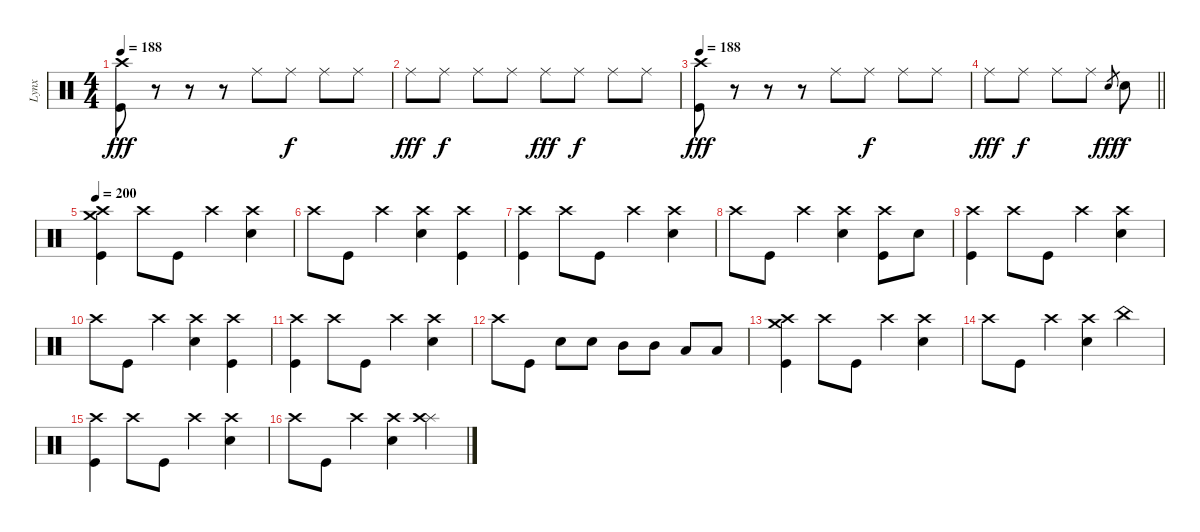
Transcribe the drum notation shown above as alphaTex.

\track ("Lynx" "Lynx") {instrument percussion}
\staff {score}
\articulation defaults
\ts (4 4)
\tempo 188
\clef neutral
\ks c
("Kick (hit)" "Crash high (hit)").8{dy fff} r.8 r.8 r.8 "Ride (middle)".8 "Ride (middle)".8{dy f} "Ride (middle)".8 "Ride (middle)".8 |
"Ride (middle)".8{dy fff} "Ride (middle)".8{dy f} "Ride (middle)".8 "Ride (middle)".8 "Ride (middle)".8{dy fff} "Ride (middle)".8{dy f} "Ride (middle)".8 "Ride (middle)".8 |
\tempo 188
("Kick (hit)" "Crash high (hit)").8{dy fff} r.8 r.8 r.8 "Ride (middle)".8 "Ride (middle)".8{dy f} "Ride (middle)".8 "Ride (middle)".8 |
\barLineRight lightlight "Ride (middle)".8{dy fff} "Ride (middle)".8{dy f} "Ride (middle)".8 "Ride (middle)".8 "Electric Snare (hit)".8{gr dy fff} "Electric Snare (hit)".8{dy f}
|
\section ("" "")
\tempo 200
("Crash high (hit)" "Crash medium (hit)" "Kick (hit)").4 "Crash high (hit)".8 "Kick (hit)".8 "Crash high (hit)".4 ("Crash high (hit)" "Electric Snare (hit)").4 |
"Crash high (hit)".8 "Kick (hit)".8 "Crash high (hit)".4 ("Crash high (hit)" "Electric Snare (hit)").4 ("Crash high (hit)" "Kick (hit)").4 |
("Crash high (hit)" "Kick (hit)").4 "Crash high (hit)".8 "Kick (hit)".8 "Crash high (hit)".4 ("Crash high (hit)" "Electric Snare (hit)").4 |
"Crash high (hit)".8 "Kick (hit)".8 "Crash high (hit)".4 ("Crash high (hit)" "Electric Snare (hit)").4 ("Crash high (hit)" "Kick (hit)").8 "Electric Snare (hit)".8 |
("Crash high (hit)" "Kick (hit)").4 "Crash high (hit)".8 "Kick (hit)".8 "Crash high (hit)".4 ("Crash high (hit)" "Electric Snare (hit)").4 |
"Crash high (hit)".8 "Kick (hit)".8 "Crash high (hit)".4 ("Crash high (hit)" "Electric Snare (hit)").4 ("Crash high (hit)" "Kick (hit)").4 |
("Crash high (hit)" "Kick (hit)").4 "Crash high (hit)".8 "Kick (hit)".8 "Crash high (hit)".4 ("Crash high (hit)" "Electric Snare (hit)").4 |
"Crash high (hit)".8 "Kick (hit)".8 "Electric Snare (hit)".8 "Electric Snare (hit)".8 "Mid Tom (hit)".8 "Mid Tom (hit)".8 "Low Tom (hit)".8 "Low Tom (hit)".8 |
("Crash high (hit)" "Crash medium (hit)" "Kick (hit)").4 "Crash high (hit)".8 "Kick (hit)".8 "Crash high (hit)".4 ("Crash high (hit)" "Electric Snare (hit)").4 |
"Crash high (hit)".8 "Kick (hit)".8 "Crash high (hit)".4 ("Crash high (hit)" "Electric Snare (hit)").4 "China (hit)".4 |
("Crash high (hit)" "Kick (hit)").4 "Crash high (hit)".8 "Kick (hit)".8 "Crash high (hit)".4 ("Crash high (hit)" "Electric Snare (hit)").4 |
"Crash high (hit)".8 "Kick (hit)".8 "Crash high (hit)".4 ("Crash high (hit)" "Electric Snare (hit)").4 ("Splash (hit)" "Crash high (hit)").4
